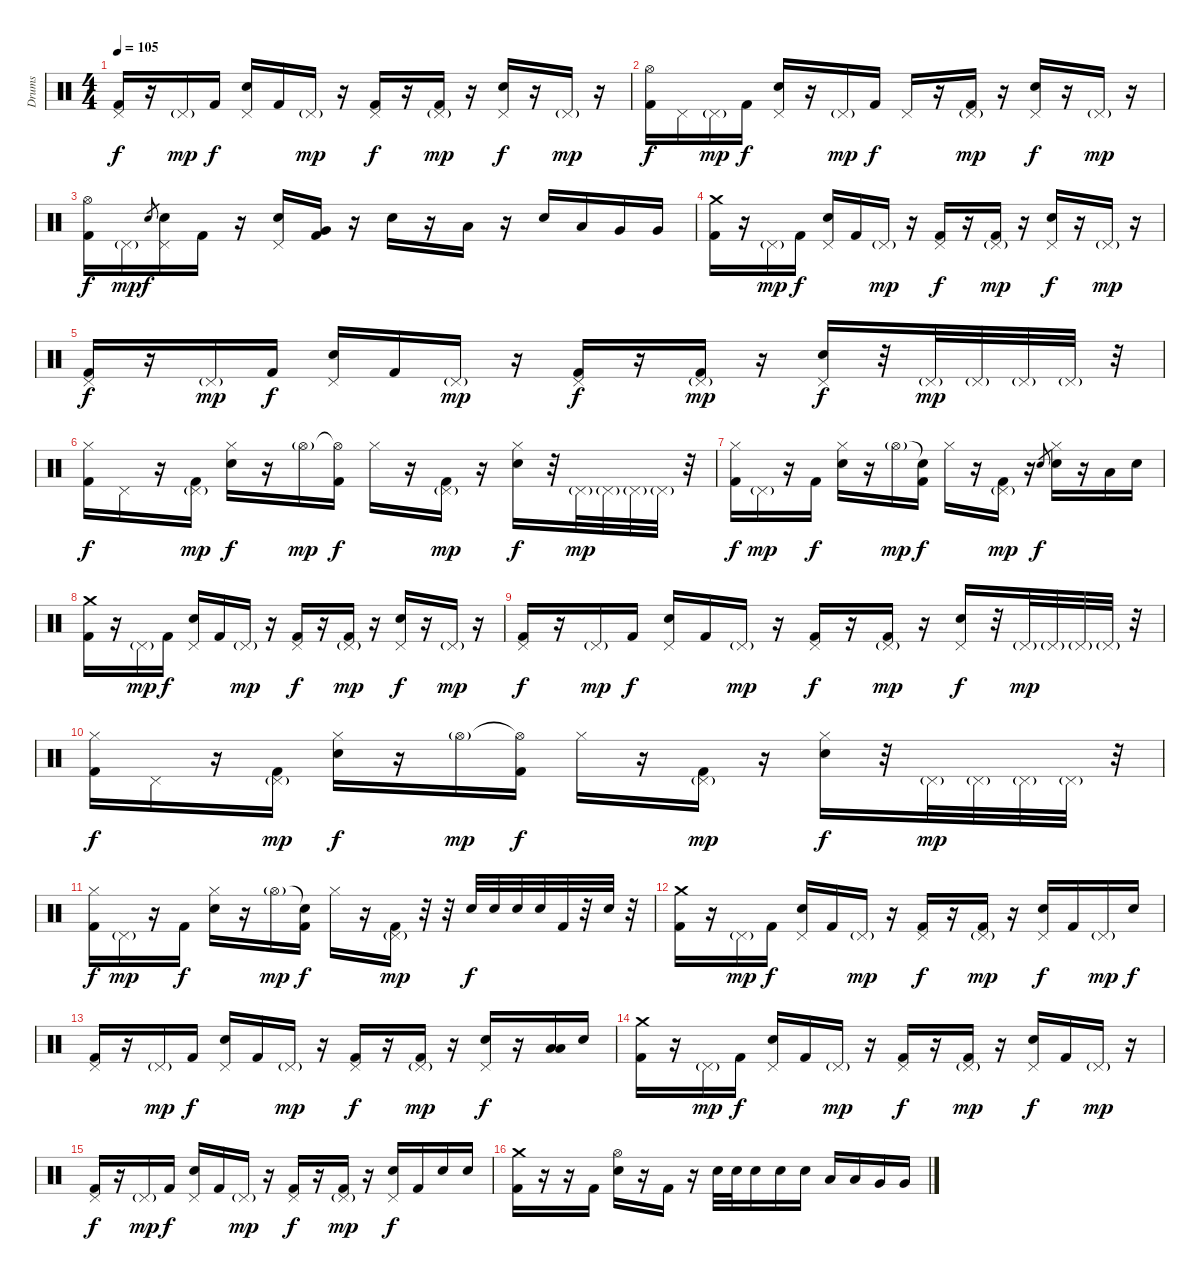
\track ("Drums" "Drums") {instrument percussion}
\staff {score}
\articulation defaults
\ts (4 4)
\tempo 105
\clef neutral
\ks c
("Pedal Hi-Hat (hit)" "Kick (hit) 2").16{dy f} r.16 "Pedal Hi-Hat (hit)"{g}.16{dy mp} "Kick (hit) 2".16{dy f} ("Pedal Hi-Hat (hit)" "Electric Snare (hit)").16 "Kick (hit) 2".16 "Pedal Hi-Hat (hit)"{g}.16{dy mp} r.16 ("Pedal Hi-Hat (hit)" "Kick (hit) 2").16{dy f} r.16 ("Pedal Hi-Hat (hit)"{g} "Kick (hit) 2").16{dy mp} r.16 ("Pedal Hi-Hat (hit)" "Electric Snare (hit)").16{dy f} r.16 "Pedal Hi-Hat (hit)"{g}.16{dy mp} r.16 |
("Hi-Hat (open)" "Kick (hit) 2").16{dy f} "Pedal Hi-Hat (hit)".16 "Pedal Hi-Hat (hit)"{g}.16{dy mp} "Kick (hit) 2".16{dy f} ("Pedal Hi-Hat (hit)" "Electric Snare (hit)").16 r.16 "Pedal Hi-Hat (hit)"{g}.16{dy mp} "Kick (hit) 2".16{dy f} "Pedal Hi-Hat (hit)".16 r.16 ("Pedal Hi-Hat (hit)"{g} "Kick (hit) 2").16{dy mp} r.16 ("Pedal Hi-Hat (hit)" "Electric Snare (hit)").16{dy f} r.16 "Pedal Hi-Hat (hit)"{g}.16{dy mp} r.16 |
("Hi-Hat (open)" "Kick (hit) 2").16{dy f} "Pedal Hi-Hat (hit)"{g}.16{dy mp} "Electric Snare (hit)".8{gr dy f} ("Pedal Hi-Hat (hit)" "Electric Snare (hit)").16 "Kick (hit) 2".16 r.16 ("Pedal Hi-Hat (hit)" "Electric Snare (hit)").16 ("Very Low Tom (hit)" "Kick (hit) 2").16 r.16 "Electric Snare (hit)".16 r.16 "Low Tom (hit)".16 r.16 "Electric Snare (hit)".16 "Low Tom (hit)".16 "Very Low Tom (hit)".16 "Very Low Tom (hit)".16 |
("Crash medium (hit)" "Kick (hit) 2").16 r.16 "Pedal Hi-Hat (hit)"{g}.16{dy mp} "Kick (hit) 2".16{dy f} ("Pedal Hi-Hat (hit)" "Electric Snare (hit)").16 "Kick (hit) 2".16 "Pedal Hi-Hat (hit)"{g}.16{dy mp} r.16 ("Pedal Hi-Hat (hit)" "Kick (hit) 2").16{dy f} r.16 ("Pedal Hi-Hat (hit)"{g} "Kick (hit) 2").16{dy mp} r.16 ("Pedal Hi-Hat (hit)" "Electric Snare (hit)").16{dy f} r.16 "Pedal Hi-Hat (hit)"{g}.16{dy mp} r.16 |
("Pedal Hi-Hat (hit)" "Kick (hit) 2").16{dy f} r.16 "Pedal Hi-Hat (hit)"{g}.16{dy mp} "Kick (hit) 2".16{dy f} ("Pedal Hi-Hat (hit)" "Electric Snare (hit)").16 "Kick (hit) 2".16 "Pedal Hi-Hat (hit)"{g}.16{dy mp} r.16 ("Pedal Hi-Hat (hit)" "Kick (hit) 2").16{dy f} r.16 ("Pedal Hi-Hat (hit)"{g} "Kick (hit) 2").16{dy mp} r.16 ("Pedal Hi-Hat (hit)" "Electric Snare (hit)").16{dy f} r.32 "Pedal Hi-Hat (hit)"{g}.32{dy mp} "Pedal Hi-Hat (hit)"{g}.32 "Pedal Hi-Hat (hit)"{g}.32 "Pedal Hi-Hat (hit)"{g}.32 r.32 |
("Hi-Hat (closed)" "Kick (hit) 2").16{dy f} "Pedal Hi-Hat (hit)".16 r.16 ("Pedal Hi-Hat (hit)"{g} "Kick (hit) 2").16{dy mp} ("Hi-Hat (closed)" "Electric Snare (hit)").16{dy f} r.16 "Hi-Hat (open)"{g}.16{dy mp} ("Hi-Hat (open)"{t} "Kick (hit) 2").16{dy f} "Hi-Hat (closed)".16 r.16 ("Pedal Hi-Hat (hit)"{g} "Kick (hit) 2").16{dy mp} r.16 ("Hi-Hat (closed)" "Electric Snare (hit)").16{dy f} r.32 "Pedal Hi-Hat (hit)"{g}.32{dy mp} "Pedal Hi-Hat (hit)"{g}.32 "Pedal Hi-Hat (hit)"{g}.32 "Pedal Hi-Hat (hit)"{g}.32 r.32 |
("Hi-Hat (closed)" "Kick (hit) 2").16{dy f} "Pedal Hi-Hat (hit)"{g}.16{dy mp} r.16 "Kick (hit) 2".16{dy f} ("Hi-Hat (closed)" "Electric Snare (hit)").16 r.16 "Hi-Hat (open)"{g}.16{dy mp} ("Snare (hit)"{t} "Kick (hit) 2").16{dy f} "Hi-Hat (closed)".16 r.16 ("Pedal Hi-Hat (hit)"{g} "Kick (hit) 2").16{dy mp} r.16 "Electric Snare (hit)".8{gr dy f} ("Hi-Hat (closed)" "Electric Snare (hit)").16 r.16 "Low Tom (hit)".16 "Electric Snare (hit)".16 |
("Crash medium (hit)" "Kick (hit) 2").16 r.16 "Pedal Hi-Hat (hit)"{g}.16{dy mp} "Kick (hit) 2".16{dy f} ("Pedal Hi-Hat (hit)" "Electric Snare (hit)").16 "Kick (hit) 2".16 "Pedal Hi-Hat (hit)"{g}.16{dy mp} r.16 ("Pedal Hi-Hat (hit)" "Kick (hit) 2").16{dy f} r.16 ("Pedal Hi-Hat (hit)"{g} "Kick (hit) 2").16{dy mp} r.16 ("Pedal Hi-Hat (hit)" "Electric Snare (hit)").16{dy f} r.16 "Pedal Hi-Hat (hit)"{g}.16{dy mp} r.16 |
("Pedal Hi-Hat (hit)" "Kick (hit) 2").16{dy f} r.16 "Pedal Hi-Hat (hit)"{g}.16{dy mp} "Kick (hit) 2".16{dy f} ("Pedal Hi-Hat (hit)" "Electric Snare (hit)").16 "Kick (hit) 2".16 "Pedal Hi-Hat (hit)"{g}.16{dy mp} r.16 ("Pedal Hi-Hat (hit)" "Kick (hit) 2").16{dy f} r.16 ("Pedal Hi-Hat (hit)"{g} "Kick (hit) 2").16{dy mp} r.16 ("Pedal Hi-Hat (hit)" "Electric Snare (hit)").16{dy f} r.32 "Pedal Hi-Hat (hit)"{g}.32{dy mp} "Pedal Hi-Hat (hit)"{g}.32 "Pedal Hi-Hat (hit)"{g}.32 "Pedal Hi-Hat (hit)"{g}.32 r.32 |
("Hi-Hat (closed)" "Kick (hit) 2").16{dy f} "Pedal Hi-Hat (hit)".16 r.16 ("Pedal Hi-Hat (hit)"{g} "Kick (hit) 2").16{dy mp} ("Hi-Hat (closed)" "Electric Snare (hit)").16{dy f} r.16 "Hi-Hat (open)"{g}.16{dy mp} ("Hi-Hat (open)"{t} "Kick (hit) 2").16{dy f} "Hi-Hat (closed)".16 r.16 ("Pedal Hi-Hat (hit)"{g} "Kick (hit) 2").16{dy mp} r.16 ("Hi-Hat (closed)" "Electric Snare (hit)").16{dy f} r.32 "Pedal Hi-Hat (hit)"{g}.32{dy mp} "Pedal Hi-Hat (hit)"{g}.32 "Pedal Hi-Hat (hit)"{g}.32 "Pedal Hi-Hat (hit)"{g}.32 r.32 |
("Hi-Hat (closed)" "Kick (hit) 2").16{dy f} "Pedal Hi-Hat (hit)"{g}.16{dy mp} r.16 "Kick (hit) 2".16{dy f} ("Hi-Hat (closed)" "Electric Snare (hit)").16 r.16 "Hi-Hat (open)"{g}.16{dy mp} ("Snare (hit)"{t} "Kick (hit) 2").16{dy f} "Hi-Hat (closed)".16 r.16 ("Pedal Hi-Hat (hit)"{g} "Kick (hit) 2").16{dy mp} r.32 r.32 "Electric Snare (hit)".32{dy f} "Electric Snare (hit)".32 "Electric Snare (hit)".32 "Electric Snare (hit)".32 "Kick (hit) 2".32 r.32 "Electric Snare (hit)".32 r.32 |
("Crash medium (hit)" "Kick (hit) 2").16 r.16 "Pedal Hi-Hat (hit)"{g}.16{dy mp} "Kick (hit) 2".16{dy f} ("Pedal Hi-Hat (hit)" "Electric Snare (hit)").16 "Kick (hit) 2".16 "Pedal Hi-Hat (hit)"{g}.16{dy mp} r.16 ("Pedal Hi-Hat (hit)" "Kick (hit) 2").16{dy f} r.16 ("Pedal Hi-Hat (hit)"{g} "Kick (hit) 2").16{dy mp} r.16 ("Pedal Hi-Hat (hit)" "Electric Snare (hit)").16{dy f} "Kick (hit) 2".16 "Pedal Hi-Hat (hit)"{g}.16{dy mp} "Electric Snare (hit)".16{dy f} |
("Pedal Hi-Hat (hit)" "Kick (hit) 2").16 r.16 "Pedal Hi-Hat (hit)"{g}.16{dy mp} "Kick (hit) 2".16{dy f} ("Pedal Hi-Hat (hit)" "Electric Snare (hit)").16 "Kick (hit) 2".16 "Pedal Hi-Hat (hit)"{g}.16{dy mp} r.16 ("Pedal Hi-Hat (hit)" "Kick (hit) 2").16{dy f} r.16 ("Pedal Hi-Hat (hit)"{g} "Kick (hit) 2").16{dy mp} r.16 ("Pedal Hi-Hat (hit)" "Electric Snare (hit)").16{dy f} r.16 ("Low Tom (hit)" "Low Tom (hit)").16 "Electric Snare (hit)".16 |
("Crash medium (hit)" "Kick (hit) 2").16 r.16 "Pedal Hi-Hat (hit)"{g}.16{dy mp} "Kick (hit) 2".16{dy f} ("Pedal Hi-Hat (hit)" "Electric Snare (hit)").16 "Kick (hit) 2".16 "Pedal Hi-Hat (hit)"{g}.16{dy mp} r.16 ("Pedal Hi-Hat (hit)" "Kick (hit) 2").16{dy f} r.16 ("Pedal Hi-Hat (hit)"{g} "Kick (hit) 2").16{dy mp} r.16 ("Pedal Hi-Hat (hit)" "Electric Snare (hit)").16{dy f} "Kick (hit) 2".16 "Pedal Hi-Hat (hit)"{g}.16{dy mp} r.16 |
("Pedal Hi-Hat (hit)" "Kick (hit) 2").16{dy f} r.16 "Pedal Hi-Hat (hit)"{g}.16{dy mp} "Kick (hit) 2".16{dy f} ("Pedal Hi-Hat (hit)" "Electric Snare (hit)").16 "Kick (hit) 2".16 "Pedal Hi-Hat (hit)"{g}.16{dy mp} r.16 ("Pedal Hi-Hat (hit)" "Kick (hit) 2").16{dy f} r.16 ("Pedal Hi-Hat (hit)"{g} "Kick (hit) 2").16{dy mp} r.16 ("Pedal Hi-Hat (hit)" "Electric Snare (hit)").16{dy f} "Kick (hit) 2".16 "Electric Snare (hit)".16 "Electric Snare (hit)".16 |
("Crash medium (hit)" "Kick (hit) 2").16 r.16 r.16 "Kick (hit) 2".16 ("Hi-Hat (open)" "Electric Snare (hit)").16 r.16 "Kick (hit) 2".16 r.16 "Electric Snare (hit)".32 "Electric Snare (hit)".32 "Electric Snare (hit)".16 "Electric Snare (hit)".16 "Electric Snare (hit)".16 "Low Tom (hit)".16 "Low Tom (hit)".16 "Very Low Tom (hit)".16 "Very Low Tom (hit)".16
